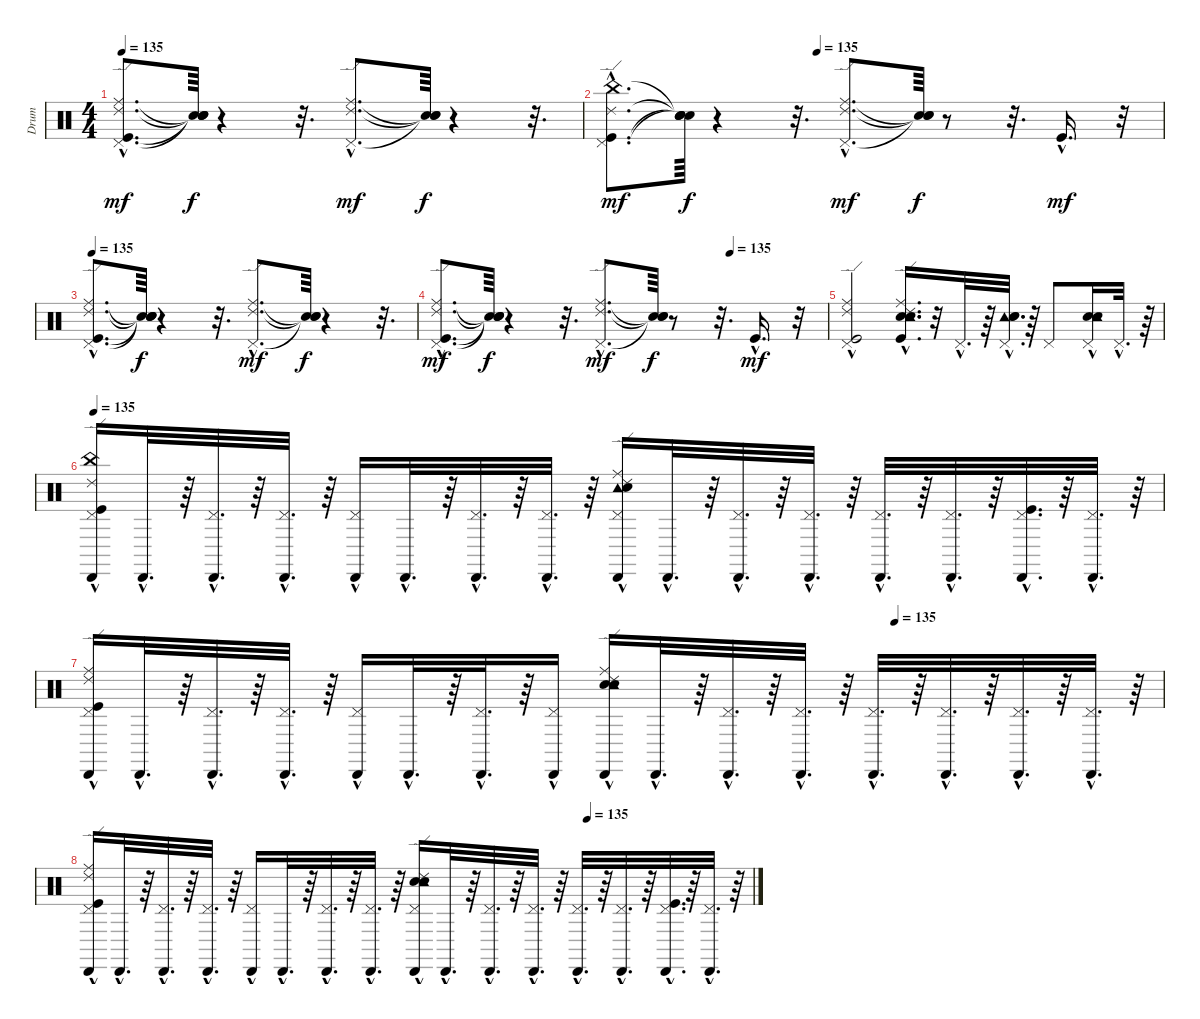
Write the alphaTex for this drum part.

\track ("Drum" "Drum") {instrument percussion}
\staff {score}
\articulation defaults
\ts (4 4)
\tempo 135
\clef neutral
\ks c
("Ride (edge) 2"{hac} "Kick (hit)"{hac} "Ride (middle)"{hac} "Pedal Hi-Hat (hit)"{hac}).8{d dy mf} ("Snare (hit)"{t} "Snare (hit)"{t} "Snare (hit)"{t} "Snare (hit)"{t}).64{dy f} r.4 r.32{d} ("Ride (edge) 2"{hac} "Ride (middle)"{hac} "Pedal Hi-Hat (hit)"{hac}).8{d dy mf} ("Snare (hit)"{t} "Snare (hit)"{t} "Snare (hit)"{t}).64{dy f} r.4 r.32{d} |
\tempo (135 0.375)
("Ride (edge) 2"{hac} "Kick (hit)"{hac} "China (hit)"{hac} "Pedal Hi-Hat (hit)"{hac}).8{d dy mf} ("Snare (hit)"{t} "Snare (hit)"{t} "Snare (hit)"{t} "Snare (hit)"{t}).64{dy f} r.4 r.32{d} ("Ride (edge) 2"{hac} "Ride (middle)"{hac} "Pedal Hi-Hat (hit)"{hac}).8{d dy mf} ("Snare (hit)"{t} "Snare (hit)"{t} "Snare (hit)"{t}).64{dy f} r.8 r.32{d} "Kick (hit)"{hac}.16{d dy mf} r.32 |
\tempo 135
("Pedal Hi-Hat (hit)"{hac} "Ride (middle)"{hac} "Kick (hit)"{hac} "Ride (edge) 2"{hac}).8{d} ("Snare (hit)"{t} "Snare (hit)"{t} "Snare (hit)"{t} "Snare (hit)"{t}).64{dy f} r.4 r.32{d} ("Pedal Hi-Hat (hit)"{hac} "Ride (middle)"{hac} "Ride (edge) 2"{hac}).8{d dy mf} ("Snare (hit)"{t} "Snare (hit)"{t} "Snare (hit)"{t}).64{dy f} r.4 r.32{d} |
\tempo (135 0.75)
("Pedal Hi-Hat (hit)"{hac} "Ride (middle)"{hac} "Kick (hit)"{hac} "Ride (edge) 2"{hac}).8{d dy mf} ("Snare (hit)"{t} "Snare (hit)"{t} "Snare (hit)"{t} "Snare (hit)"{t}).64{dy f} r.4 r.32{d} ("Pedal Hi-Hat (hit)"{hac} "Ride (middle)"{hac} "Ride (edge) 2"{hac}).8{d dy mf} ("Snare (hit)"{t} "Snare (hit)"{t} "Snare (hit)"{t}).64{dy f} r.8 r.32{d} "Kick (hit)"{hac}.16{d dy mf} r.32 |
("Ride (edge) 2"{hac} "Ride (middle)"{hac} "Pedal Hi-Hat (hit)" "Kick (hit)"{hac}).2 ("Kick (hit)"{hac} "Snare (hit) 2"{hac} "Ride (edge) 2"{hac} "Ride (middle)"{hac} "Electric Snare (hit)"{hac} "Tambourine (hit)"{hac}).16{d} r.32 "Pedal Hi-Hat (hit)"{hac}.32{d} r.64 ("Pedal Hi-Hat (hit)"{hac} "Tambourine (hit)"{hac} "Snare (hit) 2"{hac} "Electric Snare (hit)"{hac}).32{d} r.64 "Pedal Hi-Hat (hit)".8 ("Snare (hit) 2" "Electric Snare (hit)"{hac} "Pedal Hi-Hat (hit)"{hac} "Tambourine (hit)"{hac}).16 "Pedal Hi-Hat (hit)"{hac}.32{d} r.64 |
\tempo 135
("Cabasa (hit)"{hac} "Ride (edge) 2"{hac} "Kick (hit)"{hac} "Pedal Hi-Hat (hit)"{hac} "China (hit)"{hac}).16 "Cabasa (hit)"{hac}.32{d} r.64 ("Cabasa (hit)"{hac} "Pedal Hi-Hat (hit)"{hac}).32{d} r.64 ("Cabasa (hit)"{hac} "Pedal Hi-Hat (hit)"{hac}).32{d} r.64 ("Cabasa (hit)"{hac} "Pedal Hi-Hat (hit)"{hac}).16 "Cabasa (hit)"{hac}.32{d} r.64 ("Cabasa (hit)"{hac} "Pedal Hi-Hat (hit)"{hac}).32{d} r.64 ("Cabasa (hit)"{hac} "Pedal Hi-Hat (hit)"{hac}).32{d} r.64 ("Cabasa (hit)"{hac} "Ride (middle)"{hac} "Tambourine (hit)"{hac} "Ride (edge) 2"{hac} "Pedal Hi-Hat (hit)"{hac} "Electric Snare (hit)"{hac}).16 "Cabasa (hit)"{hac}.32{d} r.64 ("Cabasa (hit)"{hac} "Pedal Hi-Hat (hit)"{hac}).32{d} r.64 ("Cabasa (hit)"{hac} "Pedal Hi-Hat (hit)"{hac}).32{d} r.64 ("Cabasa (hit)"{hac} "Pedal Hi-Hat (hit)"{hac}).32{d} r.64 ("Cabasa (hit)"{hac} "Pedal Hi-Hat (hit)"{hac}).32{d} r.64 ("Cabasa (hit)"{hac} "Kick (hit)"{hac} "Pedal Hi-Hat (hit)"{hac}).32{d} r.64 ("Cabasa (hit)"{hac} "Pedal Hi-Hat (hit)"{hac}).32{d} r.64 |
\tempo (135 0.75)
("Cabasa (hit)"{hac} "Ride (middle)"{hac} "Ride (edge) 2"{hac} "Kick (hit)"{hac} "Pedal Hi-Hat (hit)"{hac}).16 "Cabasa (hit)"{hac}.32{d} r.64 ("Cabasa (hit)"{hac} "Pedal Hi-Hat (hit)"{hac}).32{d} r.64 ("Cabasa (hit)"{hac} "Pedal Hi-Hat (hit)"{hac}).32{d} r.64 ("Cabasa (hit)"{hac} "Pedal Hi-Hat (hit)"{hac}).16 "Cabasa (hit)"{hac}.32{d} r.64 ("Cabasa (hit)"{hac} "Pedal Hi-Hat (hit)"{hac}).32{d} r.64 ("Cabasa (hit)"{hac} "Pedal Hi-Hat (hit)").16 ("Cabasa (hit)"{hac} "Ride (middle)"{hac} "Electric Snare (hit)"{hac} "Tambourine (hit)"{hac} "Ride (edge) 2"{hac} "Snare (hit) 2"{hac}).16 "Cabasa (hit)"{hac}.32{d} r.64 ("Cabasa (hit)"{hac} "Pedal Hi-Hat (hit)"{hac}).32{d} r.64 ("Cabasa (hit)"{hac} "Pedal Hi-Hat (hit)"{hac}).32{d} r.64 ("Cabasa (hit)"{hac} "Pedal Hi-Hat (hit)"{hac}).32{d} r.64 ("Cabasa (hit)"{hac} "Pedal Hi-Hat (hit)"{hac}).32{d} r.64 ("Cabasa (hit)"{hac} "Pedal Hi-Hat (hit)"{hac}).32{d} r.64 ("Cabasa (hit)"{hac} "Pedal Hi-Hat (hit)"{hac}).32{d} r.64 |
\tempo (135 0.75)
("Cabasa (hit)"{hac} "Ride (edge) 2"{hac} "Kick (hit)"{hac} "Ride (middle)" "Pedal Hi-Hat (hit)"{hac}).16 "Cabasa (hit)"{hac}.32{d} r.64 ("Cabasa (hit)"{hac} "Pedal Hi-Hat (hit)"{hac}).32{d} r.64 ("Cabasa (hit)"{hac} "Pedal Hi-Hat (hit)"{hac}).32{d} r.64 ("Cabasa (hit)"{hac} "Pedal Hi-Hat (hit)"{hac}).16 "Cabasa (hit)"{hac}.32{d} r.64 ("Cabasa (hit)"{hac} "Pedal Hi-Hat (hit)"{hac}).32{d} r.64 ("Cabasa (hit)"{hac} "Pedal Hi-Hat (hit)"{hac}).32{d} r.64 ("Cabasa (hit)"{hac} "Snare (hit) 2"{hac} "Electric Snare (hit)"{hac} "Ride (edge) 2"{hac} "Pedal Hi-Hat (hit)"{hac} "Tambourine (hit)").16 "Cabasa (hit)"{hac}.32{d} r.64 ("Cabasa (hit)"{hac} "Pedal Hi-Hat (hit)"{hac}).32{d} r.64 ("Cabasa (hit)"{hac} "Pedal Hi-Hat (hit)"{hac}).32{d} r.64 ("Cabasa (hit)"{hac} "Pedal Hi-Hat (hit)"{hac}).32{d} r.64 ("Cabasa (hit)"{hac} "Pedal Hi-Hat (hit)"{hac}).32{d} r.64 ("Cabasa (hit)"{hac} "Kick (hit)"{hac} "Pedal Hi-Hat (hit)"{hac}).32{d} r.64 ("Cabasa (hit)"{hac} "Pedal Hi-Hat (hit)"{hac}).32{d} r.64
